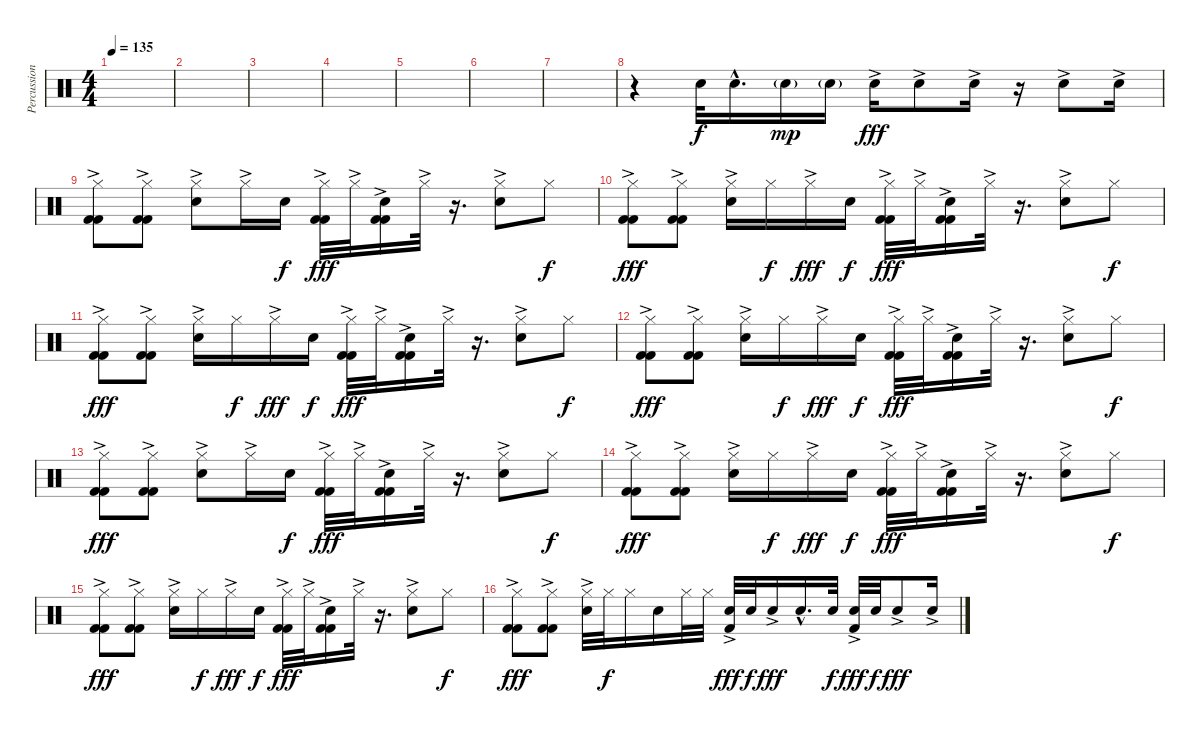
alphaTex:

\track ("Percussions" "Percussion") {instrument percussion}
\staff {score}
\articulation defaults
\ts (4 4)
\tempo 135
\clef neutral
\ks c
|
|
|
|
|
|
|
r.4 "Electric Snare (hit)".32 "Electric Snare (hit)"{hac}.16{d} "Electric Snare (hit)"{g}.16{dy mp} "Electric Snare (hit)"{g}.16 "Electric Snare (hit)"{ac}.16{dy fff} "Electric Snare (hit)"{ac}.8 "Electric Snare (hit)"{ac}.16 r.16 "Electric Snare (hit)"{ac}.8 "Electric Snare (hit)"{ac}.16 |
("Hi-Hat (closed)"{ac} "Kick (hit) 2"{ac} "Kick (hit) 2"{ac}).8 ("Hi-Hat (closed)"{ac} "Kick (hit) 2"{ac} "Kick (hit) 2"{ac}).8 ("Hi-Hat (closed)" "Electric Snare (hit)"{ac}).8 "Hi-Hat (closed)"{ac}.16 "Electric Snare (hit)".16{dy f} ("Hi-Hat (closed)"{ac} "Kick (hit) 2"{ac} "Kick (hit) 2"{ac}).32{dy fff} "Hi-Hat (closed)"{ac}.32 ("Electric Snare (hit)"{ac} "Kick (hit) 2"{ac} "Kick (hit) 2"{ac}).16 "Hi-Hat (closed)"{ac}.32 r.16{d} ("Hi-Hat (closed)"{ac} "Electric Snare (hit)"{ac}).8 "Hi-Hat (closed)".8{dy f} |
("Hi-Hat (closed)"{ac} "Kick (hit) 2"{ac} "Kick (hit) 2"{ac}).8{dy fff} ("Hi-Hat (closed)"{ac} "Kick (hit) 2"{ac} "Kick (hit) 2"{ac}).8 ("Hi-Hat (closed)" "Electric Snare (hit)"{ac}).16 "Hi-Hat (closed)".16{dy f} "Hi-Hat (closed)"{ac}.16{dy fff} "Electric Snare (hit)".16{dy f} ("Hi-Hat (closed)"{ac} "Kick (hit) 2"{ac} "Kick (hit) 2"{ac}).32{dy fff} "Hi-Hat (closed)"{ac}.32 ("Electric Snare (hit)"{ac} "Kick (hit) 2"{ac} "Kick (hit) 2"{ac}).16 "Hi-Hat (closed)"{ac}.32 r.16{d} ("Hi-Hat (closed)"{ac} "Electric Snare (hit)"{ac}).8 "Hi-Hat (closed)".8{dy f} |
("Hi-Hat (closed)"{ac} "Kick (hit) 2"{ac} "Kick (hit) 2"{ac}).8{dy fff} ("Hi-Hat (closed)"{ac} "Kick (hit) 2"{ac} "Kick (hit) 2"{ac}).8 ("Hi-Hat (closed)" "Electric Snare (hit)"{ac}).16 "Hi-Hat (closed)".16{dy f} "Hi-Hat (closed)"{ac}.16{dy fff} "Electric Snare (hit)".16{dy f} ("Hi-Hat (closed)"{ac} "Kick (hit) 2"{ac} "Kick (hit) 2"{ac}).32{dy fff} "Hi-Hat (closed)"{ac}.32 ("Electric Snare (hit)"{ac} "Kick (hit) 2"{ac} "Kick (hit) 2"{ac}).16 "Hi-Hat (closed)"{ac}.32 r.16{d} ("Hi-Hat (closed)"{ac} "Electric Snare (hit)"{ac}).8 "Hi-Hat (closed)".8{dy f} |
("Hi-Hat (closed)"{ac} "Kick (hit) 2"{ac} "Kick (hit) 2"{ac}).8{dy fff} ("Hi-Hat (closed)"{ac} "Kick (hit) 2"{ac} "Kick (hit) 2"{ac}).8 ("Hi-Hat (closed)" "Electric Snare (hit)"{ac}).16 "Hi-Hat (closed)".16{dy f} "Hi-Hat (closed)"{ac}.16{dy fff} "Electric Snare (hit)".16{dy f} ("Hi-Hat (closed)"{ac} "Kick (hit) 2"{ac} "Kick (hit) 2"{ac}).32{dy fff} "Hi-Hat (closed)"{ac}.32 ("Electric Snare (hit)"{ac} "Kick (hit) 2"{ac} "Kick (hit) 2"{ac}).16 "Hi-Hat (closed)"{ac}.32 r.16{d} ("Hi-Hat (closed)"{ac} "Electric Snare (hit)"{ac}).8 "Hi-Hat (closed)".8{dy f} |
("Hi-Hat (closed)"{ac} "Kick (hit) 2"{ac} "Kick (hit) 2"{ac}).8{dy fff} ("Hi-Hat (closed)"{ac} "Kick (hit) 2"{ac} "Kick (hit) 2"{ac}).8 ("Hi-Hat (closed)" "Electric Snare (hit)"{ac}).8 "Hi-Hat (closed)"{ac}.16 "Electric Snare (hit)".16{dy f} ("Hi-Hat (closed)"{ac} "Kick (hit) 2"{ac} "Kick (hit) 2"{ac}).32{dy fff} "Hi-Hat (closed)"{ac}.32 ("Electric Snare (hit)"{ac} "Kick (hit) 2"{ac} "Kick (hit) 2"{ac}).16 "Hi-Hat (closed)"{ac}.32 r.16{d} ("Hi-Hat (closed)"{ac} "Electric Snare (hit)"{ac}).8 "Hi-Hat (closed)".8{dy f} |
("Hi-Hat (closed)"{ac} "Kick (hit) 2"{ac} "Kick (hit) 2"{ac}).8{dy fff} ("Hi-Hat (closed)"{ac} "Kick (hit) 2"{ac} "Kick (hit) 2"{ac}).8 ("Hi-Hat (closed)" "Electric Snare (hit)"{ac}).16 "Hi-Hat (closed)".16{dy f} "Hi-Hat (closed)"{ac}.16{dy fff} "Electric Snare (hit)".16{dy f} ("Hi-Hat (closed)"{ac} "Kick (hit) 2"{ac} "Kick (hit) 2"{ac}).32{dy fff} "Hi-Hat (closed)"{ac}.32 ("Electric Snare (hit)"{ac} "Kick (hit) 2"{ac} "Kick (hit) 2"{ac}).16 "Hi-Hat (closed)"{ac}.32 r.16{d} ("Hi-Hat (closed)"{ac} "Electric Snare (hit)"{ac}).8 "Hi-Hat (closed)".8{dy f} |
("Hi-Hat (closed)"{ac} "Kick (hit) 2"{ac} "Kick (hit) 2"{ac}).8{dy fff} ("Hi-Hat (closed)"{ac} "Kick (hit) 2"{ac} "Kick (hit) 2"{ac}).8 ("Hi-Hat (closed)" "Electric Snare (hit)"{ac}).16 "Hi-Hat (closed)".16{dy f} "Hi-Hat (closed)"{ac}.16{dy fff} "Electric Snare (hit)".16{dy f} ("Hi-Hat (closed)"{ac} "Kick (hit) 2"{ac} "Kick (hit) 2"{ac}).32{dy fff} "Hi-Hat (closed)"{ac}.32 ("Electric Snare (hit)"{ac} "Kick (hit) 2"{ac} "Kick (hit) 2"{ac}).16 "Hi-Hat (closed)"{ac}.32 r.16{d} ("Hi-Hat (closed)"{ac} "Electric Snare (hit)"{ac}).8 "Hi-Hat (closed)".8{dy f} |
("Hi-Hat (closed)"{ac} "Kick (hit) 2" "Kick (hit) 2").8{dy fff} ("Hi-Hat (closed)"{ac} "Kick (hit) 2" "Kick (hit) 2").8 ("Hi-Hat (closed)" "Electric Snare (hit)"{ac}).32 "Hi-Hat (closed)".32{dy f} "Hi-Hat (closed)".16 "Electric Snare (hit)".16 "Hi-Hat (closed)".32 "Hi-Hat (closed)".32 ("Electric Snare (hit)"{ac} "Kick (hit) 2"{ac}).32{dy fff} "Electric Snare (hit)".32{dy f} "Electric Snare (hit)"{ac}.16{dy fff} "Electric Snare (hit)"{hac}.16{d} "Electric Snare (hit)".32{dy f} ("Electric Snare (hit)"{ac} "Kick (hit) 2"{ac}).32{dy fff} "Electric Snare (hit)".32{dy f} "Electric Snare (hit)"{ac}.8{dy fff} "Electric Snare (hit)"{ac}.16
